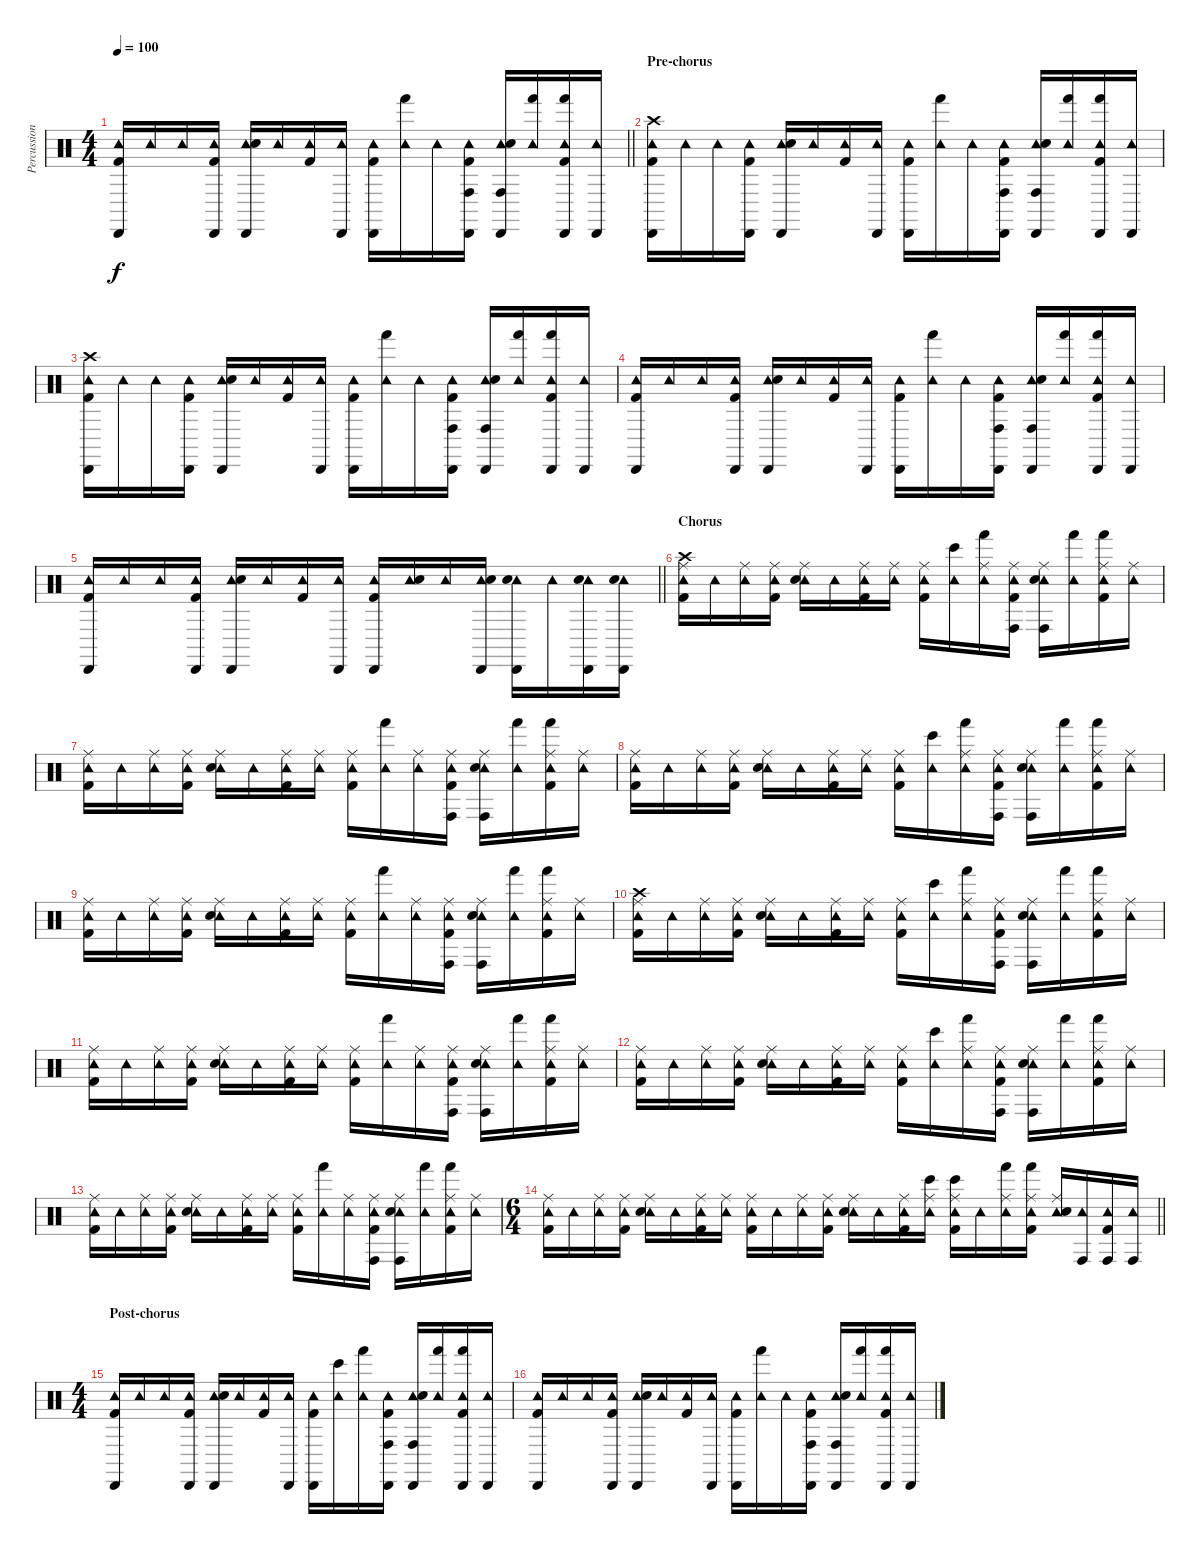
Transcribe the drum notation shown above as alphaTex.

\track ("Percussion" "Percussion") {instrument percussion}
\staff {score}
\articulation defaults
\ts (4 4)
\tempo 100
\clef neutral
\barLineRight lightlight
\ks c
("Tambourine (hit)" "Cabasa (hit)" "Kick (hit) 2").16{dy f} "Tambourine (hit)".16 "Tambourine (hit)".16 ("Tambourine (hit)" "Cabasa (hit)" "Kick (hit) 2").16 ("Tambourine (hit)" "Cabasa (hit)" "Snare (hit) 2").16 "Tambourine (hit)".16 ("Tambourine (hit)" "Kick (hit) 2").16 ("Tambourine (hit)" "Cabasa (hit)").16 ("Tambourine (hit)" "Cabasa (hit)" "Kick (hit) 2").16 ("Tambourine (hit)" "Hand (hit)").16 "Tambourine (hit)".16 ("Tambourine (hit)" "Cabasa (hit)" "Conga high (hit)" "Kick (hit) 2").16 ("Tambourine (hit)" "Cabasa (hit)" "Conga high (hit)" "Snare (hit) 2").16 ("Tambourine (hit)" "Hand (hit)").16 ("Tambourine (hit)" "Cabasa (hit)" "Hand (hit)" "Kick (hit) 2").16 ("Tambourine (hit)" "Cabasa (hit)").16 |
\section ("" "Pre-chorus")
("Tambourine (hit)" "Cabasa (hit)" "Crash high (hit)" "Kick (hit) 2").16 "Tambourine (hit)".16 "Tambourine (hit)".16 ("Tambourine (hit)" "Cabasa (hit)" "Kick (hit) 2").16 ("Tambourine (hit)" "Cabasa (hit)" "Snare (hit) 2").16 "Tambourine (hit)".16 ("Tambourine (hit)" "Kick (hit) 2").16 ("Tambourine (hit)" "Cabasa (hit)").16 ("Tambourine (hit)" "Cabasa (hit)" "Kick (hit) 2").16 ("Tambourine (hit)" "Hand (hit)").16 "Tambourine (hit)".16 ("Tambourine (hit)" "Cabasa (hit)" "Conga high (hit)" "Kick (hit) 2").16 ("Tambourine (hit)" "Cabasa (hit)" "Conga high (hit)" "Snare (hit) 2").16 ("Tambourine (hit)" "Hand (hit)").16 ("Tambourine (hit)" "Cabasa (hit)" "Hand (hit)" "Kick (hit) 2").16 ("Tambourine (hit)" "Cabasa (hit)").16 |
("Tambourine (hit)" "Cabasa (hit)" "Crash high (hit)" "Kick (hit) 2").16 "Tambourine (hit)".16 "Tambourine (hit)".16 ("Tambourine (hit)" "Cabasa (hit)" "Kick (hit) 2").16 ("Tambourine (hit)" "Cabasa (hit)" "Snare (hit) 2").16 "Tambourine (hit)".16 ("Tambourine (hit)" "Kick (hit) 2").16 ("Tambourine (hit)" "Cabasa (hit)").16 ("Tambourine (hit)" "Cabasa (hit)" "Kick (hit) 2").16 ("Tambourine (hit)" "Hand (hit)").16 "Tambourine (hit)".16 ("Tambourine (hit)" "Cabasa (hit)" "Conga high (hit)" "Kick (hit) 2").16 ("Tambourine (hit)" "Cabasa (hit)" "Conga high (hit)" "Snare (hit) 2").16 ("Tambourine (hit)" "Hand (hit)").16 ("Tambourine (hit)" "Cabasa (hit)" "Hand (hit)" "Kick (hit) 2").16 ("Tambourine (hit)" "Cabasa (hit)").16 |
("Tambourine (hit)" "Cabasa (hit)" "Kick (hit) 2").16 "Tambourine (hit)".16 "Tambourine (hit)".16 ("Tambourine (hit)" "Cabasa (hit)" "Kick (hit) 2").16 ("Tambourine (hit)" "Cabasa (hit)" "Snare (hit) 2").16 "Tambourine (hit)".16 ("Tambourine (hit)" "Kick (hit) 2").16 ("Tambourine (hit)" "Cabasa (hit)").16 ("Tambourine (hit)" "Cabasa (hit)" "Kick (hit) 2").16 ("Tambourine (hit)" "Hand (hit)").16 "Tambourine (hit)".16 ("Tambourine (hit)" "Cabasa (hit)" "Conga high (hit)" "Kick (hit) 2").16 ("Tambourine (hit)" "Cabasa (hit)" "Conga high (hit)" "Snare (hit) 2").16 ("Tambourine (hit)" "Hand (hit)").16 ("Tambourine (hit)" "Cabasa (hit)" "Hand (hit)" "Kick (hit) 2").16 ("Tambourine (hit)" "Cabasa (hit)").16 |
\barLineRight lightlight
("Tambourine (hit)" "Cabasa (hit)" "Kick (hit) 2").16 "Tambourine (hit)".16 "Tambourine (hit)".16 ("Tambourine (hit)" "Cabasa (hit)" "Kick (hit) 2").16 ("Tambourine (hit)" "Cabasa (hit)" "Snare (hit) 2").16 "Tambourine (hit)".16 ("Tambourine (hit)" "Kick (hit) 2").16 ("Tambourine (hit)" "Cabasa (hit)").16 ("Tambourine (hit)" "Cabasa (hit)" "Kick (hit) 2").16 ("Tambourine (hit)" "Snare (hit) 2").16 "Tambourine (hit)".16 ("Tambourine (hit)" "Cabasa (hit)" "Snare (hit) 2").16 ("Tambourine (hit)" "Cabasa (hit)" "Snare (hit) 2").16 "Tambourine (hit)".16 ("Tambourine (hit)" "Cabasa (hit)" "Snare (hit) 2").16 ("Tambourine (hit)" "Cabasa (hit)" "Snare (hit) 2").16 |
\section ("" "Chorus")
("Tambourine (hit)" "Ride (middle)" "Crash high (hit)" "Kick (hit) 2").16 "Tambourine (hit)".16 ("Tambourine (hit)" "Ride (middle)").16 ("Tambourine (hit)" "Ride (middle)" "Kick (hit) 2").16 ("Tambourine (hit)" "Ride (middle)" "Snare (hit) 2").16 "Tambourine (hit)".16 ("Tambourine (hit)" "Ride (middle)" "Kick (hit) 2").16 ("Tambourine (hit)" "Ride (middle)").16 ("Tambourine (hit)" "Ride (middle)" "Kick (hit) 2").16 ("Tambourine (hit)" "Bongo High (hit)").16 ("Tambourine (hit)" "Ride (middle)" "Hand (hit)").16 ("Tambourine (hit)" "Ride (middle)" "Conga high (hit)" "Kick (hit) 2").16 ("Tambourine (hit)" "Ride (middle)" "Conga high (hit)" "Snare (hit) 2").16 ("Tambourine (hit)" "Hand (hit)").16 ("Tambourine (hit)" "Ride (middle)" "Hand (hit)" "Kick (hit) 2").16 ("Tambourine (hit)" "Ride (middle)").16 |
("Tambourine (hit)" "Ride (middle)" "Kick (hit) 2").16 "Tambourine (hit)".16 ("Tambourine (hit)" "Ride (middle)").16 ("Tambourine (hit)" "Ride (middle)" "Kick (hit) 2").16 ("Tambourine (hit)" "Ride (middle)" "Snare (hit) 2").16 "Tambourine (hit)".16 ("Tambourine (hit)" "Ride (middle)" "Kick (hit) 2").16 ("Tambourine (hit)" "Ride (middle)").16 ("Tambourine (hit)" "Ride (middle)" "Kick (hit) 2").16 ("Tambourine (hit)" "Hand (hit)").16 ("Tambourine (hit)" "Ride (middle)").16 ("Tambourine (hit)" "Ride (middle)" "Conga high (hit)" "Kick (hit) 2").16 ("Tambourine (hit)" "Ride (middle)" "Conga high (hit)" "Snare (hit) 2").16 ("Tambourine (hit)" "Hand (hit)").16 ("Tambourine (hit)" "Ride (middle)" "Hand (hit)" "Kick (hit) 2").16 ("Tambourine (hit)" "Ride (middle)").16 |
("Tambourine (hit)" "Ride (middle)" "Kick (hit) 2").16 "Tambourine (hit)".16 ("Tambourine (hit)" "Ride (middle)").16 ("Tambourine (hit)" "Ride (middle)" "Kick (hit) 2").16 ("Tambourine (hit)" "Ride (middle)" "Snare (hit) 2").16 "Tambourine (hit)".16 ("Tambourine (hit)" "Ride (middle)" "Kick (hit) 2").16 ("Tambourine (hit)" "Ride (middle)").16 ("Tambourine (hit)" "Ride (middle)" "Kick (hit) 2").16 ("Tambourine (hit)" "Bongo High (hit)").16 ("Tambourine (hit)" "Ride (middle)" "Hand (hit)").16 ("Tambourine (hit)" "Ride (middle)" "Conga high (hit)" "Kick (hit) 2").16 ("Tambourine (hit)" "Ride (middle)" "Conga high (hit)" "Snare (hit) 2").16 ("Tambourine (hit)" "Hand (hit)").16 ("Tambourine (hit)" "Ride (middle)" "Hand (hit)" "Kick (hit) 2").16 ("Tambourine (hit)" "Ride (middle)").16 |
("Tambourine (hit)" "Ride (middle)" "Kick (hit) 2").16 "Tambourine (hit)".16 ("Tambourine (hit)" "Ride (middle)").16 ("Tambourine (hit)" "Ride (middle)" "Kick (hit) 2").16 ("Tambourine (hit)" "Ride (middle)" "Snare (hit) 2").16 "Tambourine (hit)".16 ("Tambourine (hit)" "Ride (middle)" "Kick (hit) 2").16 ("Tambourine (hit)" "Ride (middle)").16 ("Tambourine (hit)" "Ride (middle)" "Kick (hit) 2").16 ("Tambourine (hit)" "Hand (hit)").16 ("Tambourine (hit)" "Ride (middle)").16 ("Tambourine (hit)" "Ride (middle)" "Conga high (hit)" "Kick (hit) 2").16 ("Tambourine (hit)" "Ride (middle)" "Conga high (hit)" "Snare (hit) 2").16 ("Tambourine (hit)" "Hand (hit)").16 ("Tambourine (hit)" "Ride (middle)" "Hand (hit)" "Kick (hit) 2").16 ("Tambourine (hit)" "Ride (middle)").16 |
("Tambourine (hit)" "Ride (middle)" "Crash high (hit)" "Kick (hit) 2").16 "Tambourine (hit)".16 ("Tambourine (hit)" "Ride (middle)").16 ("Tambourine (hit)" "Ride (middle)" "Kick (hit) 2").16 ("Tambourine (hit)" "Ride (middle)" "Snare (hit) 2").16 "Tambourine (hit)".16 ("Tambourine (hit)" "Ride (middle)" "Kick (hit) 2").16 ("Tambourine (hit)" "Ride (middle)").16 ("Tambourine (hit)" "Ride (middle)" "Kick (hit) 2").16 ("Tambourine (hit)" "Bongo High (hit)").16 ("Tambourine (hit)" "Ride (middle)" "Hand (hit)").16 ("Tambourine (hit)" "Ride (middle)" "Conga high (hit)" "Kick (hit) 2").16 ("Tambourine (hit)" "Ride (middle)" "Conga high (hit)" "Snare (hit) 2").16 ("Tambourine (hit)" "Hand (hit)").16 ("Tambourine (hit)" "Ride (middle)" "Hand (hit)" "Kick (hit) 2").16 ("Tambourine (hit)" "Ride (middle)").16 |
("Tambourine (hit)" "Ride (middle)" "Kick (hit) 2").16 "Tambourine (hit)".16 ("Tambourine (hit)" "Ride (middle)").16 ("Tambourine (hit)" "Ride (middle)" "Kick (hit) 2").16 ("Tambourine (hit)" "Ride (middle)" "Snare (hit) 2").16 "Tambourine (hit)".16 ("Tambourine (hit)" "Ride (middle)" "Kick (hit) 2").16 ("Tambourine (hit)" "Ride (middle)").16 ("Tambourine (hit)" "Ride (middle)" "Kick (hit) 2").16 ("Tambourine (hit)" "Hand (hit)").16 ("Tambourine (hit)" "Ride (middle)").16 ("Tambourine (hit)" "Ride (middle)" "Conga high (hit)" "Kick (hit) 2").16 ("Tambourine (hit)" "Ride (middle)" "Conga high (hit)" "Snare (hit) 2").16 ("Tambourine (hit)" "Hand (hit)").16 ("Tambourine (hit)" "Ride (middle)" "Hand (hit)" "Kick (hit) 2").16 ("Tambourine (hit)" "Ride (middle)").16 |
("Tambourine (hit)" "Ride (middle)" "Kick (hit) 2").16 "Tambourine (hit)".16 ("Tambourine (hit)" "Ride (middle)").16 ("Tambourine (hit)" "Ride (middle)" "Kick (hit) 2").16 ("Tambourine (hit)" "Ride (middle)" "Snare (hit) 2").16 "Tambourine (hit)".16 ("Tambourine (hit)" "Ride (middle)" "Kick (hit) 2").16 ("Tambourine (hit)" "Ride (middle)").16 ("Tambourine (hit)" "Ride (middle)" "Kick (hit) 2").16 ("Tambourine (hit)" "Bongo High (hit)").16 ("Tambourine (hit)" "Ride (middle)" "Hand (hit)").16 ("Tambourine (hit)" "Ride (middle)" "Conga high (hit)" "Kick (hit) 2").16 ("Tambourine (hit)" "Ride (middle)" "Conga high (hit)" "Snare (hit) 2").16 ("Tambourine (hit)" "Hand (hit)").16 ("Tambourine (hit)" "Ride (middle)" "Hand (hit)" "Kick (hit) 2").16 ("Tambourine (hit)" "Ride (middle)").16 |
("Tambourine (hit)" "Ride (middle)" "Kick (hit) 2").16 "Tambourine (hit)".16 ("Tambourine (hit)" "Ride (middle)").16 ("Tambourine (hit)" "Ride (middle)" "Kick (hit) 2").16 ("Tambourine (hit)" "Ride (middle)" "Snare (hit) 2").16 "Tambourine (hit)".16 ("Tambourine (hit)" "Ride (middle)" "Kick (hit) 2").16 ("Tambourine (hit)" "Ride (middle)").16 ("Tambourine (hit)" "Ride (middle)" "Kick (hit) 2").16 ("Tambourine (hit)" "Hand (hit)").16 ("Tambourine (hit)" "Ride (middle)").16 ("Tambourine (hit)" "Ride (middle)" "Conga high (hit)" "Kick (hit) 2").16 ("Tambourine (hit)" "Ride (middle)" "Conga high (hit)" "Snare (hit) 2").16 ("Tambourine (hit)" "Hand (hit)").16 ("Tambourine (hit)" "Ride (middle)" "Hand (hit)" "Kick (hit) 2").16 ("Tambourine (hit)" "Ride (middle)").16 |
\ts (6 4)
\barLineRight lightlight
("Tambourine (hit)" "Ride (middle)" "Kick (hit) 2").16 "Tambourine (hit)".16 ("Tambourine (hit)" "Ride (middle)").16 ("Tambourine (hit)" "Ride (middle)" "Kick (hit) 2").16 ("Tambourine (hit)" "Ride (middle)" "Snare (hit) 2").16 "Tambourine (hit)".16 ("Tambourine (hit)" "Ride (middle)" "Kick (hit) 2").16 ("Tambourine (hit)" "Ride (middle)").16 ("Tambourine (hit)" "Ride (middle)" "Kick (hit) 2").16 "Tambourine (hit)".16 ("Tambourine (hit)" "Ride (middle)").16 ("Tambourine (hit)" "Ride (middle)" "Kick (hit) 2").16 ("Tambourine (hit)" "Ride (middle)" "Snare (hit) 2").16 "Tambourine (hit)".16 ("Tambourine (hit)" "Ride (middle)" "Kick (hit) 2").16 ("Tambourine (hit)" "Ride (middle)" "Bongo High (hit)").16 ("Tambourine (hit)" "Ride (middle)" "Bongo High (hit)" "Kick (hit) 2").16 "Tambourine (hit)".16 ("Tambourine (hit)" "Ride (middle)" "Hand (hit)").16 ("Tambourine (hit)" "Ride (middle)" "Hand (hit)" "Kick (hit) 2").16 ("Tambourine (hit)" "Ride (middle)" "Snare (hit) 2").16 ("Tambourine (hit)" "Conga high (hit)").16 ("Tambourine (hit)" "Conga high (hit)" "Kick (hit) 2").16 ("Tambourine (hit)" "Conga high (hit)").16 |
\ts (4 4)
\section ("" "Post-chorus")
("Tambourine (hit)" "Cabasa (hit)" "Kick (hit) 2").16 "Tambourine (hit)".16 "Tambourine (hit)".16 ("Tambourine (hit)" "Cabasa (hit)" "Kick (hit) 2").16 ("Tambourine (hit)" "Cabasa (hit)" "Snare (hit) 2").16 "Tambourine (hit)".16 ("Tambourine (hit)" "Kick (hit) 2").16 ("Tambourine (hit)" "Cabasa (hit)").16 ("Tambourine (hit)" "Cabasa (hit)" "Kick (hit) 2").16 ("Tambourine (hit)" "Bongo High (hit)").16 ("Tambourine (hit)" "Hand (hit)").16 ("Tambourine (hit)" "Cabasa (hit)" "Conga high (hit)" "Kick (hit) 2").16 ("Tambourine (hit)" "Cabasa (hit)" "Conga high (hit)" "Snare (hit) 2").16 ("Tambourine (hit)" "Hand (hit)").16 ("Tambourine (hit)" "Cabasa (hit)" "Hand (hit)" "Kick (hit) 2").16 ("Tambourine (hit)" "Cabasa (hit)").16 |
("Tambourine (hit)" "Cabasa (hit)" "Kick (hit) 2").16 "Tambourine (hit)".16 "Tambourine (hit)".16 ("Tambourine (hit)" "Cabasa (hit)" "Kick (hit) 2").16 ("Tambourine (hit)" "Cabasa (hit)" "Snare (hit) 2").16 "Tambourine (hit)".16 ("Tambourine (hit)" "Kick (hit) 2").16 ("Tambourine (hit)" "Cabasa (hit)").16 ("Tambourine (hit)" "Cabasa (hit)" "Kick (hit) 2").16 ("Tambourine (hit)" "Hand (hit)").16 "Tambourine (hit)".16 ("Tambourine (hit)" "Cabasa (hit)" "Conga high (hit)" "Kick (hit) 2").16 ("Tambourine (hit)" "Cabasa (hit)" "Conga high (hit)" "Snare (hit) 2").16 ("Tambourine (hit)" "Hand (hit)").16 ("Tambourine (hit)" "Cabasa (hit)" "Hand (hit)" "Kick (hit) 2").16 ("Tambourine (hit)" "Cabasa (hit)").16
